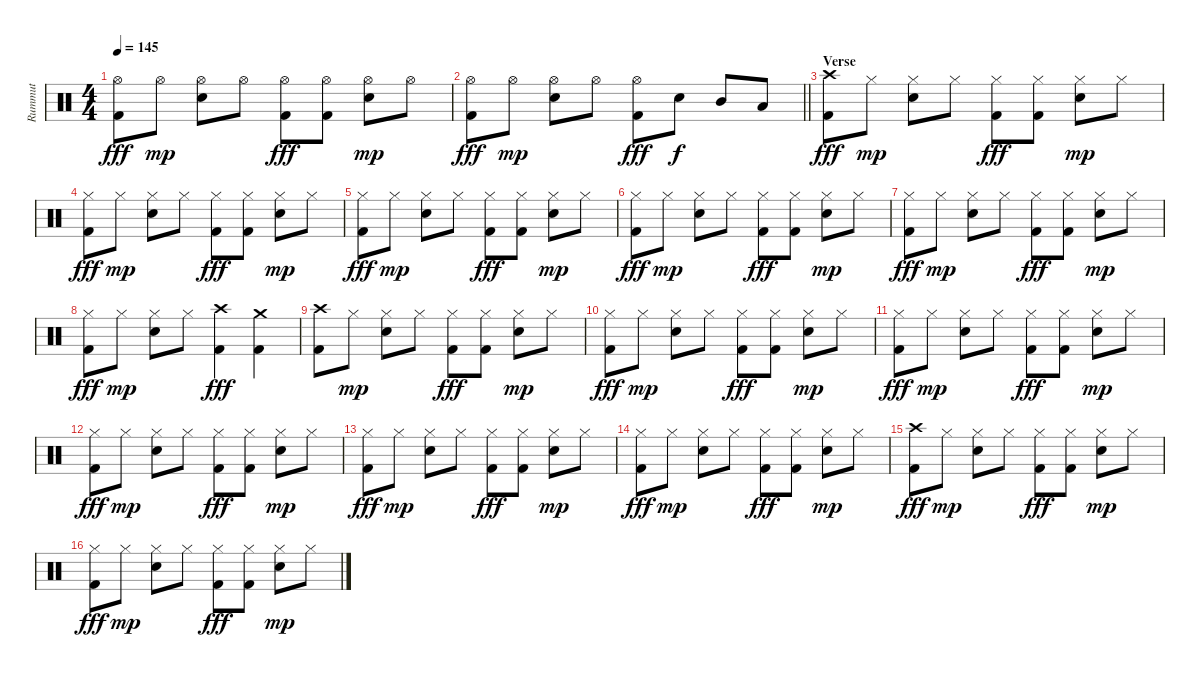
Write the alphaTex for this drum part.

\track ("Rummut" "Rummut") {instrument percussion}
\staff {score}
\articulation defaults
\ts (4 4)
\tempo 145
\clef neutral
\ks c
("Hi-Hat (open)" "Kick (hit) 2").8{dy fff} "Hi-Hat (open)".8{dy mp} ("Hi-Hat (open)" "Snare (hit) 2").8 "Hi-Hat (open)".8 ("Hi-Hat (open)" "Kick (hit) 2").8{dy fff} ("Hi-Hat (open)" "Kick (hit) 2").8 ("Hi-Hat (open)" "Snare (hit) 2").8{dy mp} "Hi-Hat (open)".8 |
\barLineRight lightlight
("Hi-Hat (open)" "Kick (hit) 2").8{dy fff} "Hi-Hat (open)".8{dy mp} ("Hi-Hat (open)" "Snare (hit) 2").8 "Hi-Hat (open)".8 ("Hi-Hat (open)" "Kick (hit) 2").8{dy fff} "Snare (hit) 2".8{dy f} "Mid Tom (hit)".8 "Low Tom (hit)".8 |
\section ("" "Verse")
("Crash high (hit)" "Kick (hit) 2").8{dy fff} "Hi-Hat (closed)".8{dy mp} ("Hi-Hat (closed)" "Snare (hit) 2").8 "Hi-Hat (closed)".8 ("Hi-Hat (closed)" "Kick (hit) 2").8{dy fff} ("Hi-Hat (closed)" "Kick (hit) 2").8 ("Hi-Hat (closed)" "Snare (hit) 2").8{dy mp} "Hi-Hat (closed)".8 |
("Hi-Hat (closed)" "Kick (hit) 2").8{dy fff} "Hi-Hat (closed)".8{dy mp} ("Hi-Hat (closed)" "Snare (hit) 2").8 "Hi-Hat (closed)".8 ("Hi-Hat (closed)" "Kick (hit) 2").8{dy fff} ("Hi-Hat (closed)" "Kick (hit) 2").8 ("Hi-Hat (closed)" "Snare (hit) 2").8{dy mp} "Hi-Hat (closed)".8 |
("Hi-Hat (closed)" "Kick (hit) 2").8{dy fff} "Hi-Hat (closed)".8{dy mp} ("Hi-Hat (closed)" "Snare (hit) 2").8 "Hi-Hat (closed)".8 ("Hi-Hat (closed)" "Kick (hit) 2").8{dy fff} ("Hi-Hat (closed)" "Kick (hit) 2").8 ("Hi-Hat (closed)" "Snare (hit) 2").8{dy mp} "Hi-Hat (closed)".8 |
("Hi-Hat (closed)" "Kick (hit) 2").8{dy fff} "Hi-Hat (closed)".8{dy mp} ("Hi-Hat (closed)" "Snare (hit) 2").8 "Hi-Hat (closed)".8 ("Hi-Hat (closed)" "Kick (hit) 2").8{dy fff} ("Hi-Hat (closed)" "Kick (hit) 2").8 ("Hi-Hat (closed)" "Snare (hit) 2").8{dy mp} "Hi-Hat (closed)".8 |
("Hi-Hat (closed)" "Kick (hit) 2").8{dy fff} "Hi-Hat (closed)".8{dy mp} ("Hi-Hat (closed)" "Snare (hit) 2").8 "Hi-Hat (closed)".8 ("Hi-Hat (closed)" "Kick (hit) 2").8{dy fff} ("Hi-Hat (closed)" "Kick (hit) 2").8 ("Hi-Hat (closed)" "Snare (hit) 2").8{dy mp} "Hi-Hat (closed)".8 |
("Hi-Hat (closed)" "Kick (hit) 2").8{dy fff} "Hi-Hat (closed)".8{dy mp} ("Hi-Hat (closed)" "Snare (hit) 2").8 "Hi-Hat (closed)".8 ("Crash high (hit)" "Kick (hit) 2").4{dy fff} ("Crash medium (hit)" "Kick (hit) 2").4 |
("Crash high (hit)" "Kick (hit) 2").8 "Hi-Hat (closed)".8{dy mp} ("Hi-Hat (closed)" "Snare (hit) 2").8 "Hi-Hat (closed)".8 ("Hi-Hat (closed)" "Kick (hit) 2").8{dy fff} ("Hi-Hat (closed)" "Kick (hit) 2").8 ("Hi-Hat (closed)" "Snare (hit) 2").8{dy mp} "Hi-Hat (closed)".8 |
("Hi-Hat (closed)" "Kick (hit) 2").8{dy fff} "Hi-Hat (closed)".8{dy mp} ("Hi-Hat (closed)" "Snare (hit) 2").8 "Hi-Hat (closed)".8 ("Hi-Hat (closed)" "Kick (hit) 2").8{dy fff} ("Hi-Hat (closed)" "Kick (hit) 2").8 ("Hi-Hat (closed)" "Snare (hit) 2").8{dy mp} "Hi-Hat (closed)".8 |
("Hi-Hat (closed)" "Kick (hit) 2").8{dy fff} "Hi-Hat (closed)".8{dy mp} ("Hi-Hat (closed)" "Snare (hit) 2").8 "Hi-Hat (closed)".8 ("Hi-Hat (closed)" "Kick (hit) 2").8{dy fff} ("Hi-Hat (closed)" "Kick (hit) 2").8 ("Hi-Hat (closed)" "Snare (hit) 2").8{dy mp} "Hi-Hat (closed)".8 |
("Hi-Hat (closed)" "Kick (hit) 2").8{dy fff} "Hi-Hat (closed)".8{dy mp} ("Hi-Hat (closed)" "Snare (hit) 2").8 "Hi-Hat (closed)".8 ("Hi-Hat (closed)" "Kick (hit) 2").8{dy fff} ("Hi-Hat (closed)" "Kick (hit) 2").8 ("Hi-Hat (closed)" "Snare (hit) 2").8{dy mp} "Hi-Hat (closed)".8 |
("Hi-Hat (closed)" "Kick (hit) 2").8{dy fff} "Hi-Hat (closed)".8{dy mp} ("Hi-Hat (closed)" "Snare (hit) 2").8 "Hi-Hat (closed)".8 ("Hi-Hat (closed)" "Kick (hit) 2").8{dy fff} ("Hi-Hat (closed)" "Kick (hit) 2").8 ("Hi-Hat (closed)" "Snare (hit) 2").8{dy mp} "Hi-Hat (closed)".8 |
("Hi-Hat (closed)" "Kick (hit) 2").8{dy fff} "Hi-Hat (closed)".8{dy mp} ("Hi-Hat (closed)" "Snare (hit) 2").8 "Hi-Hat (closed)".8 ("Hi-Hat (closed)" "Kick (hit) 2").8{dy fff} ("Hi-Hat (closed)" "Kick (hit) 2").8 ("Hi-Hat (closed)" "Snare (hit) 2").8{dy mp} "Hi-Hat (closed)".8 |
("Crash high (hit)" "Kick (hit) 2").8{dy fff} "Hi-Hat (closed)".8{dy mp} ("Hi-Hat (closed)" "Snare (hit) 2").8 "Hi-Hat (closed)".8 ("Hi-Hat (closed)" "Kick (hit) 2").8{dy fff} ("Hi-Hat (closed)" "Kick (hit) 2").8 ("Hi-Hat (closed)" "Snare (hit) 2").8{dy mp} "Hi-Hat (closed)".8 |
("Hi-Hat (closed)" "Kick (hit) 2").8{dy fff} "Hi-Hat (closed)".8{dy mp} ("Hi-Hat (closed)" "Snare (hit) 2").8 "Hi-Hat (closed)".8 ("Hi-Hat (closed)" "Kick (hit) 2").8{dy fff} ("Hi-Hat (closed)" "Kick (hit) 2").8 ("Hi-Hat (closed)" "Snare (hit) 2").8{dy mp} "Hi-Hat (closed)".8
